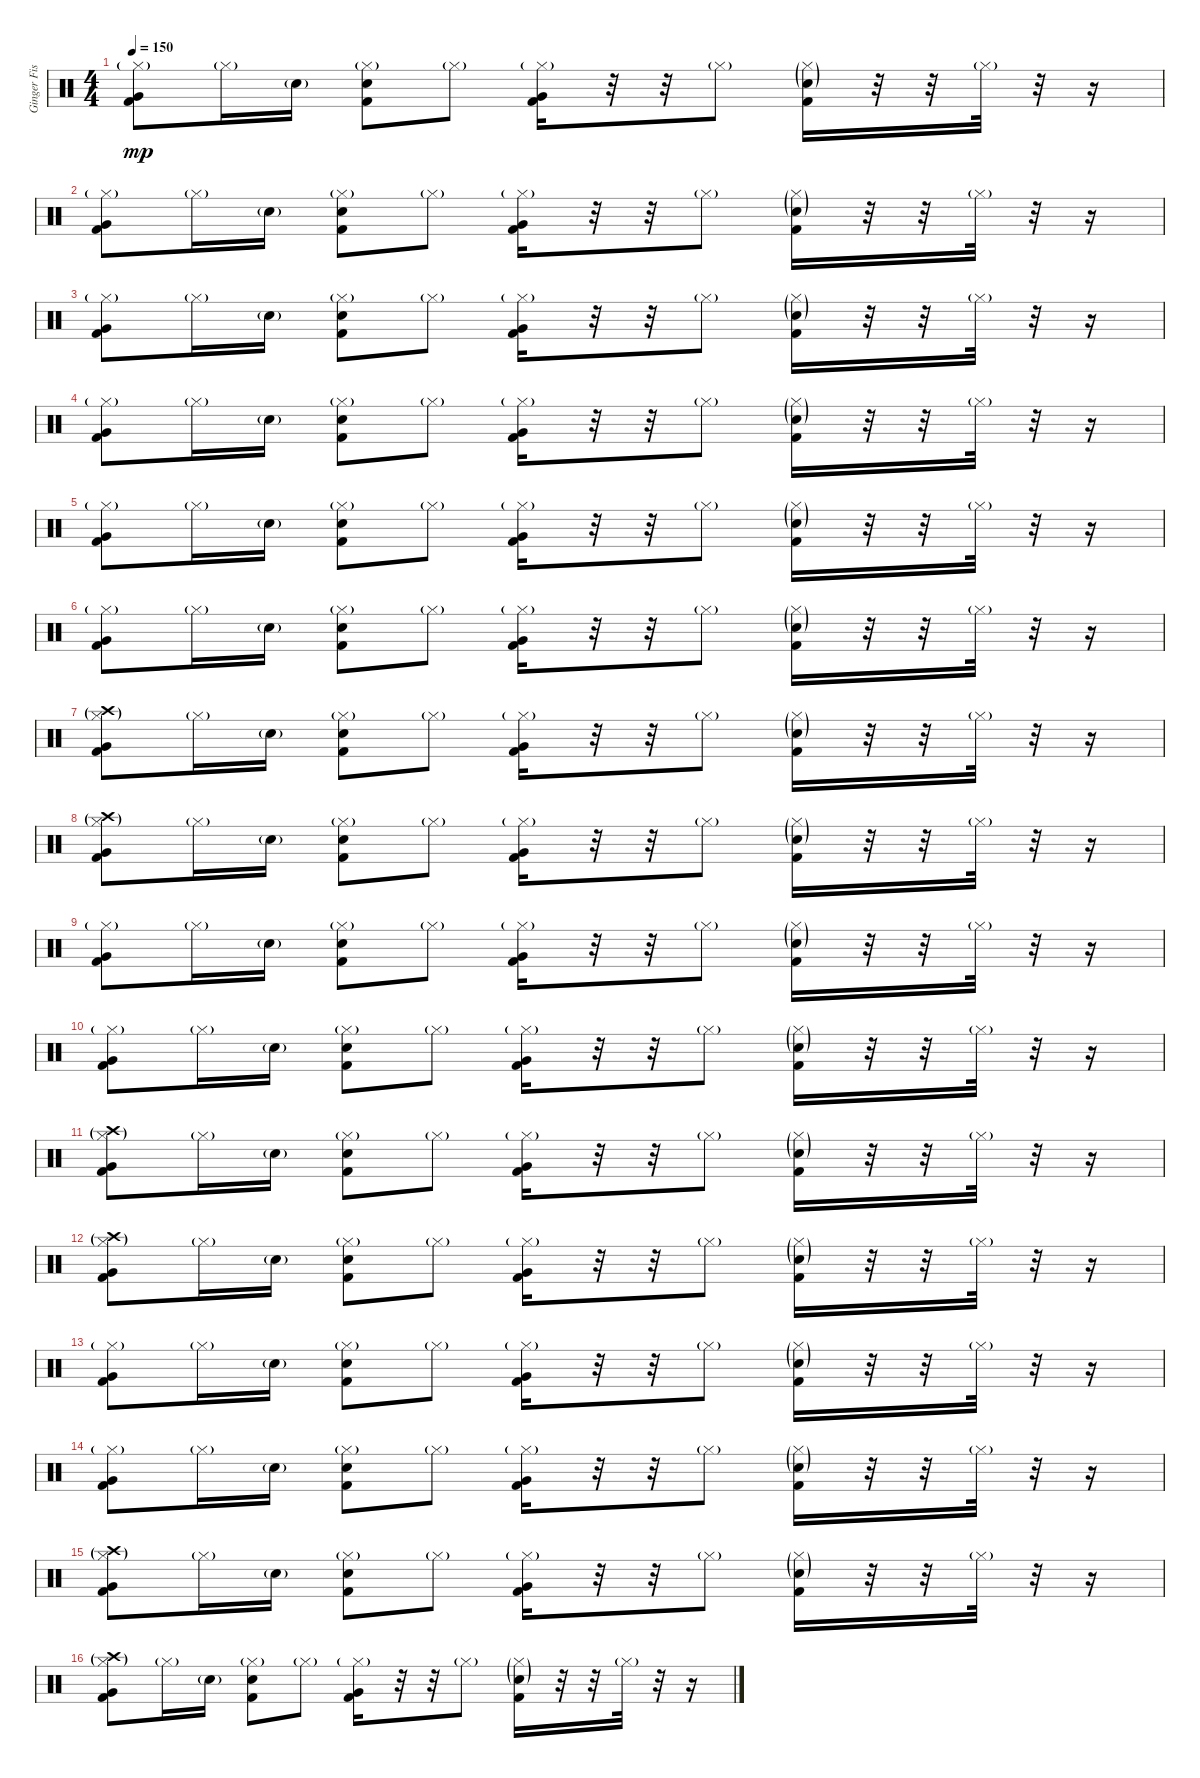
\track ("Ginger Fish" "Ginger Fis") {instrument percussion}
\staff {score}
\articulation defaults
\ts (4 4)
\tempo 150
\clef neutral
\ks c
("Hi-Hat (closed)"{g} "Very Low Tom (hit)" "Kick (hit) 2").8{dy mp} "Hi-Hat (closed)"{g}.16 "Electric Snare (hit)"{g}.16 ("Hi-Hat (closed)"{g} "Electric Snare (hit)" "Kick (hit) 2").8 "Hi-Hat (closed)"{g}.8 ("Hi-Hat (closed)"{g} "Very Low Tom (hit)" "Kick (hit) 2").16 r.32 r.32 "Hi-Hat (closed)"{g}.8 ("Hi-Hat (closed)"{g} "Electric Snare (hit)"{g} "Kick (hit) 2").16 r.32 r.32 "Hi-Hat (closed)"{g}.32 r.32 r.16 |
("Hi-Hat (closed)"{g} "Very Low Tom (hit)" "Kick (hit) 2").8 "Hi-Hat (closed)"{g}.16 "Electric Snare (hit)"{g}.16 ("Hi-Hat (closed)"{g} "Electric Snare (hit)" "Kick (hit) 2").8 "Hi-Hat (closed)"{g}.8 ("Hi-Hat (closed)"{g} "Very Low Tom (hit)" "Kick (hit) 2").16 r.32 r.32 "Hi-Hat (closed)"{g}.8 ("Hi-Hat (closed)"{g} "Electric Snare (hit)"{g} "Kick (hit) 2").16 r.32 r.32 "Hi-Hat (closed)"{g}.32 r.32 r.16 |
("Hi-Hat (closed)"{g} "Very Low Tom (hit)" "Kick (hit) 2").8 "Hi-Hat (closed)"{g}.16 "Electric Snare (hit)"{g}.16 ("Hi-Hat (closed)"{g} "Electric Snare (hit)" "Kick (hit) 2").8 "Hi-Hat (closed)"{g}.8 ("Hi-Hat (closed)"{g} "Very Low Tom (hit)" "Kick (hit) 2").16 r.32 r.32 "Hi-Hat (closed)"{g}.8 ("Hi-Hat (closed)"{g} "Electric Snare (hit)"{g} "Kick (hit) 2").16 r.32 r.32 "Hi-Hat (closed)"{g}.32 r.32 r.16 |
("Hi-Hat (closed)"{g} "Very Low Tom (hit)" "Kick (hit) 2").8 "Hi-Hat (closed)"{g}.16 "Electric Snare (hit)"{g}.16 ("Hi-Hat (closed)"{g} "Electric Snare (hit)" "Kick (hit) 2").8 "Hi-Hat (closed)"{g}.8 ("Hi-Hat (closed)"{g} "Very Low Tom (hit)" "Kick (hit) 2").16 r.32 r.32 "Hi-Hat (closed)"{g}.8 ("Hi-Hat (closed)"{g} "Electric Snare (hit)"{g} "Kick (hit) 2").16 r.32 r.32 "Hi-Hat (closed)"{g}.32 r.32 r.16 |
("Hi-Hat (closed)"{g} "Very Low Tom (hit)" "Kick (hit) 2").8 "Hi-Hat (closed)"{g}.16 "Electric Snare (hit)"{g}.16 ("Hi-Hat (closed)"{g} "Electric Snare (hit)" "Kick (hit) 2").8 "Hi-Hat (closed)"{g}.8 ("Hi-Hat (closed)"{g} "Very Low Tom (hit)" "Kick (hit) 2").16 r.32 r.32 "Hi-Hat (closed)"{g}.8 ("Hi-Hat (closed)"{g} "Electric Snare (hit)"{g} "Kick (hit) 2").16 r.32 r.32 "Hi-Hat (closed)"{g}.32 r.32 r.16 |
("Hi-Hat (closed)"{g} "Very Low Tom (hit)" "Kick (hit) 2").8 "Hi-Hat (closed)"{g}.16 "Electric Snare (hit)"{g}.16 ("Hi-Hat (closed)"{g} "Electric Snare (hit)" "Kick (hit) 2").8 "Hi-Hat (closed)"{g}.8 ("Hi-Hat (closed)"{g} "Very Low Tom (hit)" "Kick (hit) 2").16 r.32 r.32 "Hi-Hat (closed)"{g}.8 ("Hi-Hat (closed)"{g} "Electric Snare (hit)"{g} "Kick (hit) 2").16 r.32 r.32 "Hi-Hat (closed)"{g}.32 r.32 r.16 |
("Hi-Hat (closed)"{g} "Crash high (hit)"{g} "Very Low Tom (hit)" "Kick (hit) 2").8 "Hi-Hat (closed)"{g}.16 "Electric Snare (hit)"{g}.16 ("Hi-Hat (closed)"{g} "Electric Snare (hit)" "Kick (hit) 2").8 "Hi-Hat (closed)"{g}.8 ("Hi-Hat (closed)"{g} "Very Low Tom (hit)" "Kick (hit) 2").16 r.32 r.32 "Hi-Hat (closed)"{g}.8 ("Hi-Hat (closed)"{g} "Electric Snare (hit)"{g} "Kick (hit) 2").16 r.32 r.32 "Hi-Hat (closed)"{g}.32 r.32 r.16 |
("Hi-Hat (closed)"{g} "Crash high (hit)"{g} "Very Low Tom (hit)" "Kick (hit) 2").8 "Hi-Hat (closed)"{g}.16 "Electric Snare (hit)"{g}.16 ("Hi-Hat (closed)"{g} "Electric Snare (hit)" "Kick (hit) 2").8 "Hi-Hat (closed)"{g}.8 ("Hi-Hat (closed)"{g} "Very Low Tom (hit)" "Kick (hit) 2").16 r.32 r.32 "Hi-Hat (closed)"{g}.8 ("Hi-Hat (closed)"{g} "Electric Snare (hit)"{g} "Kick (hit) 2").16 r.32 r.32 "Hi-Hat (closed)"{g}.32 r.32 r.16 |
("Hi-Hat (closed)"{g} "Very Low Tom (hit)" "Kick (hit) 2").8 "Hi-Hat (closed)"{g}.16 "Electric Snare (hit)"{g}.16 ("Hi-Hat (closed)"{g} "Electric Snare (hit)" "Kick (hit) 2").8 "Hi-Hat (closed)"{g}.8 ("Hi-Hat (closed)"{g} "Very Low Tom (hit)" "Kick (hit) 2").16 r.32 r.32 "Hi-Hat (closed)"{g}.8 ("Hi-Hat (closed)"{g} "Electric Snare (hit)"{g} "Kick (hit) 2").16 r.32 r.32 "Hi-Hat (closed)"{g}.32 r.32 r.16 |
("Hi-Hat (closed)"{g} "Very Low Tom (hit)" "Kick (hit) 2").8 "Hi-Hat (closed)"{g}.16 "Electric Snare (hit)"{g}.16 ("Hi-Hat (closed)"{g} "Electric Snare (hit)" "Kick (hit) 2").8 "Hi-Hat (closed)"{g}.8 ("Hi-Hat (closed)"{g} "Very Low Tom (hit)" "Kick (hit) 2").16 r.32 r.32 "Hi-Hat (closed)"{g}.8 ("Hi-Hat (closed)"{g} "Electric Snare (hit)"{g} "Kick (hit) 2").16 r.32 r.32 "Hi-Hat (closed)"{g}.32 r.32 r.16 |
("Hi-Hat (closed)"{g} "Crash high (hit)"{g} "Very Low Tom (hit)" "Kick (hit) 2").8 "Hi-Hat (closed)"{g}.16 "Electric Snare (hit)"{g}.16 ("Hi-Hat (closed)"{g} "Electric Snare (hit)" "Kick (hit) 2").8 "Hi-Hat (closed)"{g}.8 ("Hi-Hat (closed)"{g} "Very Low Tom (hit)" "Kick (hit) 2").16 r.32 r.32 "Hi-Hat (closed)"{g}.8 ("Hi-Hat (closed)"{g} "Electric Snare (hit)"{g} "Kick (hit) 2").16 r.32 r.32 "Hi-Hat (closed)"{g}.32 r.32 r.16 |
("Hi-Hat (closed)"{g} "Crash high (hit)"{g} "Very Low Tom (hit)" "Kick (hit) 2").8 "Hi-Hat (closed)"{g}.16 "Electric Snare (hit)"{g}.16 ("Hi-Hat (closed)"{g} "Electric Snare (hit)" "Kick (hit) 2").8 "Hi-Hat (closed)"{g}.8 ("Hi-Hat (closed)"{g} "Very Low Tom (hit)" "Kick (hit) 2").16 r.32 r.32 "Hi-Hat (closed)"{g}.8 ("Hi-Hat (closed)"{g} "Electric Snare (hit)"{g} "Kick (hit) 2").16 r.32 r.32 "Hi-Hat (closed)"{g}.32 r.32 r.16 |
("Hi-Hat (closed)"{g} "Very Low Tom (hit)" "Kick (hit) 2").8 "Hi-Hat (closed)"{g}.16 "Electric Snare (hit)"{g}.16 ("Hi-Hat (closed)"{g} "Electric Snare (hit)" "Kick (hit) 2").8 "Hi-Hat (closed)"{g}.8 ("Hi-Hat (closed)"{g} "Very Low Tom (hit)" "Kick (hit) 2").16 r.32 r.32 "Hi-Hat (closed)"{g}.8 ("Hi-Hat (closed)"{g} "Electric Snare (hit)"{g} "Kick (hit) 2").16 r.32 r.32 "Hi-Hat (closed)"{g}.32 r.32 r.16 |
("Hi-Hat (closed)"{g} "Very Low Tom (hit)" "Kick (hit) 2").8 "Hi-Hat (closed)"{g}.16 "Electric Snare (hit)"{g}.16 ("Hi-Hat (closed)"{g} "Electric Snare (hit)" "Kick (hit) 2").8 "Hi-Hat (closed)"{g}.8 ("Hi-Hat (closed)"{g} "Very Low Tom (hit)" "Kick (hit) 2").16 r.32 r.32 "Hi-Hat (closed)"{g}.8 ("Hi-Hat (closed)"{g} "Electric Snare (hit)"{g} "Kick (hit) 2").16 r.32 r.32 "Hi-Hat (closed)"{g}.32 r.32 r.16 |
("Hi-Hat (closed)"{g} "Crash high (hit)"{g} "Very Low Tom (hit)" "Kick (hit) 2").8 "Hi-Hat (closed)"{g}.16 "Electric Snare (hit)"{g}.16 ("Hi-Hat (closed)"{g} "Electric Snare (hit)" "Kick (hit) 2").8 "Hi-Hat (closed)"{g}.8 ("Hi-Hat (closed)"{g} "Very Low Tom (hit)" "Kick (hit) 2").16 r.32 r.32 "Hi-Hat (closed)"{g}.8 ("Hi-Hat (closed)"{g} "Electric Snare (hit)"{g} "Kick (hit) 2").16 r.32 r.32 "Hi-Hat (closed)"{g}.32 r.32 r.16 |
("Hi-Hat (closed)"{g} "Crash high (hit)"{g} "Very Low Tom (hit)" "Kick (hit) 2").8 "Hi-Hat (closed)"{g}.16 "Electric Snare (hit)"{g}.16 ("Hi-Hat (closed)"{g} "Electric Snare (hit)" "Kick (hit) 2").8 "Hi-Hat (closed)"{g}.8 ("Hi-Hat (closed)"{g} "Very Low Tom (hit)" "Kick (hit) 2").16 r.32 r.32 "Hi-Hat (closed)"{g}.8 ("Hi-Hat (closed)"{g} "Electric Snare (hit)"{g} "Kick (hit) 2").16 r.32 r.32 "Hi-Hat (closed)"{g}.32 r.32 r.16
